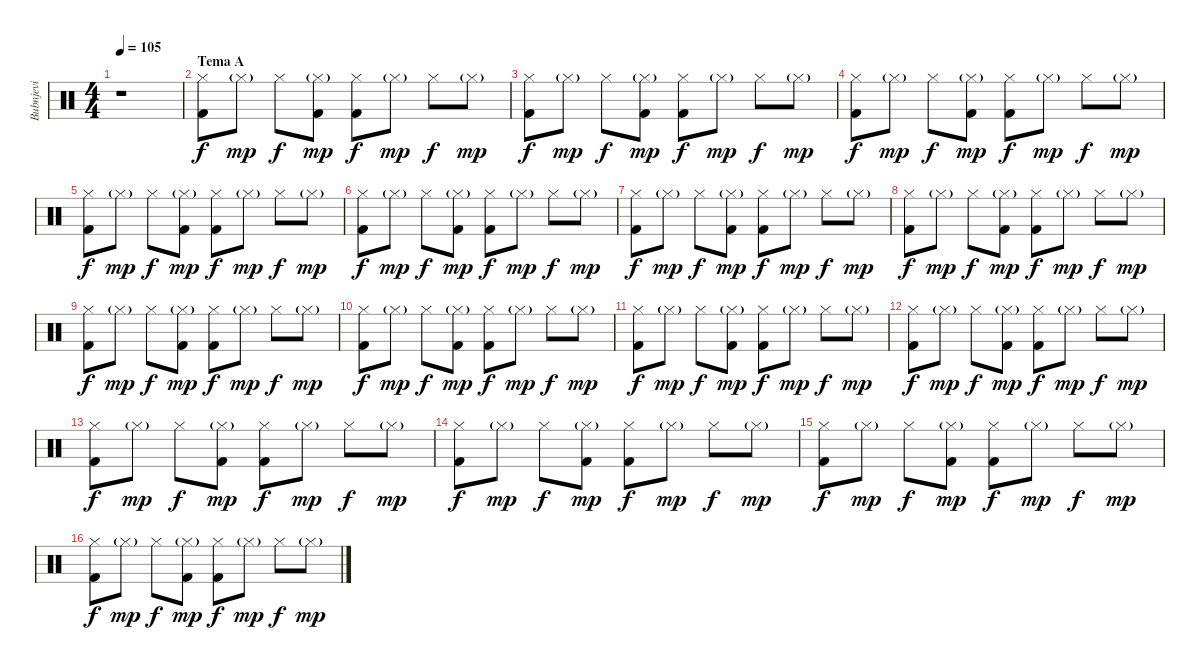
\track ("Bubnjevi" "Bubnjevi") {instrument percussion}
\staff {score}
\articulation defaults
\ts (4 4)
\tempo 105
\clef neutral
\ks c
r.1{dy f} |
\section ("" "Tema A")
("Hi-Hat (closed)" "Kick (hit) 2").8 "Hi-Hat (closed)"{g}.8{dy mp} "Hi-Hat (closed)".8{dy f} ("Hi-Hat (closed)"{g} "Kick (hit) 2").8{dy mp} ("Hi-Hat (closed)" "Kick (hit) 2").8{dy f} "Hi-Hat (closed)"{g}.8{dy mp} "Hi-Hat (closed)".8{dy f} "Hi-Hat (closed)"{g}.8{dy mp} |
("Hi-Hat (closed)" "Kick (hit) 2").8{dy f} "Hi-Hat (closed)"{g}.8{dy mp} "Hi-Hat (closed)".8{dy f} ("Hi-Hat (closed)"{g} "Kick (hit) 2").8{dy mp} ("Hi-Hat (closed)" "Kick (hit) 2").8{dy f} "Hi-Hat (closed)"{g}.8{dy mp} "Hi-Hat (closed)".8{dy f} "Hi-Hat (closed)"{g}.8{dy mp} |
("Hi-Hat (closed)" "Kick (hit) 2").8{dy f} "Hi-Hat (closed)"{g}.8{dy mp} "Hi-Hat (closed)".8{dy f} ("Hi-Hat (closed)"{g} "Kick (hit) 2").8{dy mp} ("Hi-Hat (closed)" "Kick (hit) 2").8{dy f} "Hi-Hat (closed)"{g}.8{dy mp} "Hi-Hat (closed)".8{dy f} "Hi-Hat (closed)"{g}.8{dy mp} |
("Hi-Hat (closed)" "Kick (hit) 2").8{dy f} "Hi-Hat (closed)"{g}.8{dy mp} "Hi-Hat (closed)".8{dy f} ("Hi-Hat (closed)"{g} "Kick (hit) 2").8{dy mp} ("Hi-Hat (closed)" "Kick (hit) 2").8{dy f} "Hi-Hat (closed)"{g}.8{dy mp} "Hi-Hat (closed)".8{dy f} "Hi-Hat (closed)"{g}.8{dy mp} |
("Hi-Hat (closed)" "Kick (hit) 2").8{dy f} "Hi-Hat (closed)"{g}.8{dy mp} "Hi-Hat (closed)".8{dy f} ("Hi-Hat (closed)"{g} "Kick (hit) 2").8{dy mp} ("Hi-Hat (closed)" "Kick (hit) 2").8{dy f} "Hi-Hat (closed)"{g}.8{dy mp} "Hi-Hat (closed)".8{dy f} "Hi-Hat (closed)"{g}.8{dy mp} |
("Hi-Hat (closed)" "Kick (hit) 2").8{dy f} "Hi-Hat (closed)"{g}.8{dy mp} "Hi-Hat (closed)".8{dy f} ("Hi-Hat (closed)"{g} "Kick (hit) 2").8{dy mp} ("Hi-Hat (closed)" "Kick (hit) 2").8{dy f} "Hi-Hat (closed)"{g}.8{dy mp} "Hi-Hat (closed)".8{dy f} "Hi-Hat (closed)"{g}.8{dy mp} |
("Hi-Hat (closed)" "Kick (hit) 2").8{dy f} "Hi-Hat (closed)"{g}.8{dy mp} "Hi-Hat (closed)".8{dy f} ("Hi-Hat (closed)"{g} "Kick (hit) 2").8{dy mp} ("Hi-Hat (closed)" "Kick (hit) 2").8{dy f} "Hi-Hat (closed)"{g}.8{dy mp} "Hi-Hat (closed)".8{dy f} "Hi-Hat (closed)"{g}.8{dy mp} |
("Hi-Hat (closed)" "Kick (hit) 2").8{dy f} "Hi-Hat (closed)"{g}.8{dy mp} "Hi-Hat (closed)".8{dy f} ("Hi-Hat (closed)"{g} "Kick (hit) 2").8{dy mp} ("Hi-Hat (closed)" "Kick (hit) 2").8{dy f} "Hi-Hat (closed)"{g}.8{dy mp} "Hi-Hat (closed)".8{dy f} "Hi-Hat (closed)"{g}.8{dy mp} |
("Hi-Hat (closed)" "Kick (hit) 2").8{dy f} "Hi-Hat (closed)"{g}.8{dy mp} "Hi-Hat (closed)".8{dy f} ("Hi-Hat (closed)"{g} "Kick (hit) 2").8{dy mp} ("Hi-Hat (closed)" "Kick (hit) 2").8{dy f} "Hi-Hat (closed)"{g}.8{dy mp} "Hi-Hat (closed)".8{dy f} "Hi-Hat (closed)"{g}.8{dy mp} |
("Hi-Hat (closed)" "Kick (hit) 2").8{dy f} "Hi-Hat (closed)"{g}.8{dy mp} "Hi-Hat (closed)".8{dy f} ("Hi-Hat (closed)"{g} "Kick (hit) 2").8{dy mp} ("Hi-Hat (closed)" "Kick (hit) 2").8{dy f} "Hi-Hat (closed)"{g}.8{dy mp} "Hi-Hat (closed)".8{dy f} "Hi-Hat (closed)"{g}.8{dy mp} |
("Hi-Hat (closed)" "Kick (hit) 2").8{dy f} "Hi-Hat (closed)"{g}.8{dy mp} "Hi-Hat (closed)".8{dy f} ("Hi-Hat (closed)"{g} "Kick (hit) 2").8{dy mp} ("Hi-Hat (closed)" "Kick (hit) 2").8{dy f} "Hi-Hat (closed)"{g}.8{dy mp} "Hi-Hat (closed)".8{dy f} "Hi-Hat (closed)"{g}.8{dy mp} |
("Hi-Hat (closed)" "Kick (hit) 2").8{dy f} "Hi-Hat (closed)"{g}.8{dy mp} "Hi-Hat (closed)".8{dy f} ("Hi-Hat (closed)"{g} "Kick (hit) 2").8{dy mp} ("Hi-Hat (closed)" "Kick (hit) 2").8{dy f} "Hi-Hat (closed)"{g}.8{dy mp} "Hi-Hat (closed)".8{dy f} "Hi-Hat (closed)"{g}.8{dy mp} |
("Hi-Hat (closed)" "Kick (hit) 2").8{dy f} "Hi-Hat (closed)"{g}.8{dy mp} "Hi-Hat (closed)".8{dy f} ("Hi-Hat (closed)"{g} "Kick (hit) 2").8{dy mp} ("Hi-Hat (closed)" "Kick (hit) 2").8{dy f} "Hi-Hat (closed)"{g}.8{dy mp} "Hi-Hat (closed)".8{dy f} "Hi-Hat (closed)"{g}.8{dy mp} |
("Hi-Hat (closed)" "Kick (hit) 2").8{dy f} "Hi-Hat (closed)"{g}.8{dy mp} "Hi-Hat (closed)".8{dy f} ("Hi-Hat (closed)"{g} "Kick (hit) 2").8{dy mp} ("Hi-Hat (closed)" "Kick (hit) 2").8{dy f} "Hi-Hat (closed)"{g}.8{dy mp} "Hi-Hat (closed)".8{dy f} "Hi-Hat (closed)"{g}.8{dy mp} |
("Hi-Hat (closed)" "Kick (hit) 2").8{dy f} "Hi-Hat (closed)"{g}.8{dy mp} "Hi-Hat (closed)".8{dy f} ("Hi-Hat (closed)"{g} "Kick (hit) 2").8{dy mp} ("Hi-Hat (closed)" "Kick (hit) 2").8{dy f} "Hi-Hat (closed)"{g}.8{dy mp} "Hi-Hat (closed)".8{dy f} "Hi-Hat (closed)"{g}.8{dy mp}
